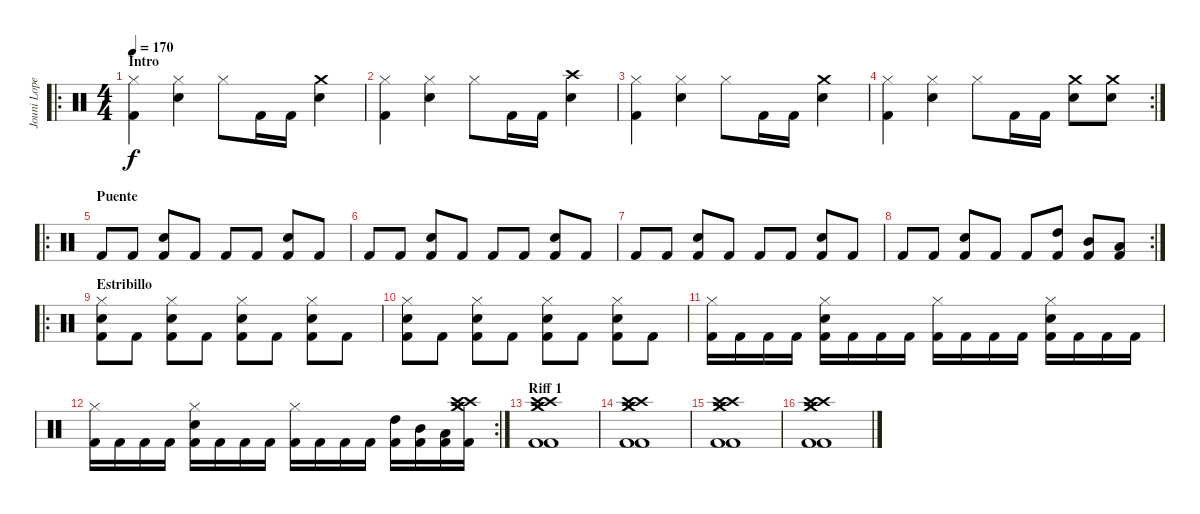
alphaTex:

\track ("Jouni Lopez (Bateria) 17 años" "Jouni Lope") {instrument percussion}
\staff {score}
\articulation defaults
\ro
\ts (4 4)
\section ("" "Intro")
\tempo 170
\clef neutral
\ks c
("Hi-Hat (closed)" "Kick (hit) 2").4{dy f} ("Hi-Hat (closed)" "Snare (hit) 2").4 "Hi-Hat (closed)".8 "Kick (hit) 2".16 "Kick (hit) 2".16 ("Crash medium (hit)" "Snare (hit) 2").4 |
("Hi-Hat (closed)" "Kick (hit) 2").4 ("Hi-Hat (closed)" "Snare (hit) 2").4 "Hi-Hat (closed)".8 "Kick (hit) 2".16 "Kick (hit) 2".16 ("Crash high (hit)" "Snare (hit) 2").4 |
("Hi-Hat (closed)" "Kick (hit) 2").4 ("Hi-Hat (closed)" "Snare (hit) 2").4 "Hi-Hat (closed)".8 "Kick (hit) 2".16 "Kick (hit) 2".16 ("Crash medium (hit)" "Snare (hit) 2").4 |
\rc 2
("Hi-Hat (closed)" "Kick (hit) 2").4 ("Hi-Hat (closed)" "Snare (hit) 2").4 "Hi-Hat (closed)".8 "Kick (hit) 2".16 "Kick (hit) 2".16 ("Crash medium (hit)" "Snare (hit) 2").8 ("Crash medium (hit)" "Snare (hit) 2").8 |
\ro
\section ("" "Puente")
"Kick (hit) 2".8 "Kick (hit) 2".8 ("Kick (hit) 2" "Snare (hit) 2").8 "Kick (hit) 2".8 "Kick (hit) 2".8 "Kick (hit) 2".8 ("Kick (hit) 2" "Snare (hit) 2").8 "Kick (hit) 2".8 |
"Kick (hit) 2".8 "Kick (hit) 2".8 ("Kick (hit) 2" "Snare (hit) 2").8 "Kick (hit) 2".8 "Kick (hit) 2".8 "Kick (hit) 2".8 ("Kick (hit) 2" "Snare (hit) 2").8 "Kick (hit) 2".8 |
"Kick (hit) 2".8 "Kick (hit) 2".8 ("Kick (hit) 2" "Snare (hit) 2").8 "Kick (hit) 2".8 "Kick (hit) 2".8 "Kick (hit) 2".8 ("Kick (hit) 2" "Snare (hit) 2").8 "Kick (hit) 2".8 |
\rc 2 "Kick (hit) 2".8 "Kick (hit) 2".8
("Kick (hit) 2" "Snare (hit) 2").8 "Kick (hit) 2".8 "Kick (hit) 2".8 ("Kick (hit) 2" "High Tom (hit)").8 ("Kick (hit) 2" "Mid Tom (hit)").8 ("Kick (hit) 2" "Low Tom (hit)").8 |
\ro
\section ("" "Estribillo")
("Kick (hit) 2" "Snare (hit) 2" "Hi-Hat (closed)").8 "Kick (hit) 2".8 ("Kick (hit) 2" "Snare (hit) 2" "Hi-Hat (closed)").8 "Kick (hit) 2".8 ("Kick (hit) 2" "Snare (hit) 2" "Hi-Hat (closed)").8 "Kick (hit) 2".8 ("Kick (hit) 2" "Snare (hit) 2" "Hi-Hat (closed)").8 "Kick (hit) 2".8 |
("Kick (hit) 2" "Snare (hit) 2" "Hi-Hat (closed)").8 "Kick (hit) 2".8 ("Kick (hit) 2" "Snare (hit) 2" "Hi-Hat (closed)").8 "Kick (hit) 2".8 ("Kick (hit) 2" "Snare (hit) 2" "Hi-Hat (closed)").8 "Kick (hit) 2".8 ("Kick (hit) 2" "Snare (hit) 2" "Hi-Hat (closed)").8 "Kick (hit) 2".8 |
("Kick (hit) 2" "Hi-Hat (closed)").16 "Kick (hit) 2".16 "Kick (hit) 2".16 "Kick (hit) 2".16 ("Kick (hit) 2" "Snare (hit) 2" "Hi-Hat (closed)").16 "Kick (hit) 2".16 "Kick (hit) 2".16 "Kick (hit) 2".16 ("Kick (hit) 2" "Hi-Hat (closed)").16 "Kick (hit) 2".16 "Kick (hit) 2".16 "Kick (hit) 2".16 ("Kick (hit) 2" "Snare (hit) 2" "Hi-Hat (closed)").16 "Kick (hit) 2".16 "Kick (hit) 2".16 "Kick (hit) 2".16 |
\rc 2
("Kick (hit) 2" "Hi-Hat (closed)").16 "Kick (hit) 2".16 "Kick (hit) 2".16 "Kick (hit) 2".16 ("Kick (hit) 2" "Snare (hit) 2" "Hi-Hat (closed)").16 "Kick (hit) 2".16 "Kick (hit) 2".16 "Kick (hit) 2".16 ("Kick (hit) 2" "Hi-Hat (closed)").16 "Kick (hit) 2".16 "Kick (hit) 2".16 "Kick (hit) 2".16 ("Kick (hit) 2" "High Tom (hit)").16 ("Kick (hit) 2" "Mid Tom (hit)").16 ("Kick (hit) 2" "Low Tom (hit)").16 ("Kick (hit) 2" "Crash medium (hit)" "Crash high (hit)" "Crash medium (hit)" "Crash high (hit)").16 |
\section ("" "Riff 1")
("Crash high (hit)" "Crash high (hit)" "Crash medium (hit)" "Crash medium (hit)" "Kick (hit) 2" "Kick (hit) 2").1 |
("Crash high (hit)" "Kick (hit) 2" "Crash high (hit)" "Crash medium (hit)" "Crash medium (hit)" "Kick (hit) 2").1 |
("Crash high (hit)" "Crash high (hit)" "Crash medium (hit)" "Crash medium (hit)" "Kick (hit) 2" "Kick (hit) 2").1 |
("Crash high (hit)" "Crash high (hit)" "Crash medium (hit)" "Crash medium (hit)" "Kick (hit) 2" "Kick (hit) 2").1
